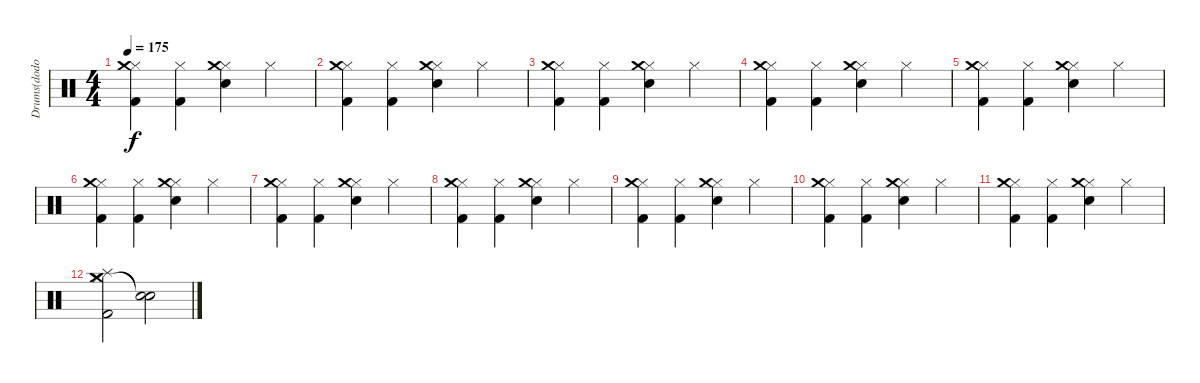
\track ("Drums(dodo)" "Drums(dodo") {instrument percussion}
\staff {score}
\articulation defaults
\ts (4 4)
\tempo 175
\clef neutral
\ks c
("Hi-Hat (closed)" "Crash medium (hit)" "Kick (hit) 2").4{dy f} ("Hi-Hat (closed)" "Kick (hit) 2").4 ("Hi-Hat (closed)" "Crash medium (hit)" "Snare (hit) 2").4 "Hi-Hat (closed)".4 |
("Hi-Hat (closed)" "Crash medium (hit)" "Kick (hit) 2").4 ("Hi-Hat (closed)" "Kick (hit) 2").4 ("Hi-Hat (closed)" "Crash medium (hit)" "Snare (hit) 2").4 "Hi-Hat (closed)".4 |
("Hi-Hat (closed)" "Crash medium (hit)" "Kick (hit) 2").4 ("Hi-Hat (closed)" "Kick (hit) 2").4 ("Hi-Hat (closed)" "Crash medium (hit)" "Snare (hit) 2").4 "Hi-Hat (closed)".4 |
("Hi-Hat (closed)" "Crash medium (hit)" "Kick (hit) 2").4 ("Hi-Hat (closed)" "Kick (hit) 2").4 ("Hi-Hat (closed)" "Crash medium (hit)" "Snare (hit) 2").4 "Hi-Hat (closed)".4 |
("Hi-Hat (closed)" "Crash medium (hit)" "Kick (hit) 2").4 ("Hi-Hat (closed)" "Kick (hit) 2").4 ("Hi-Hat (closed)" "Crash medium (hit)" "Snare (hit) 2").4 "Hi-Hat (closed)".4 |
("Hi-Hat (closed)" "Crash medium (hit)" "Kick (hit) 2").4 ("Hi-Hat (closed)" "Kick (hit) 2").4 ("Hi-Hat (closed)" "Crash medium (hit)" "Snare (hit) 2").4 "Hi-Hat (closed)".4 |
("Hi-Hat (closed)" "Crash medium (hit)" "Kick (hit) 2").4 ("Hi-Hat (closed)" "Kick (hit) 2").4 ("Hi-Hat (closed)" "Crash medium (hit)" "Snare (hit) 2").4 "Hi-Hat (closed)".4 |
("Hi-Hat (closed)" "Crash medium (hit)" "Kick (hit) 2").4 ("Hi-Hat (closed)" "Kick (hit) 2").4 ("Hi-Hat (closed)" "Crash medium (hit)" "Snare (hit) 2").4 "Hi-Hat (closed)".4 |
("Hi-Hat (closed)" "Crash medium (hit)" "Kick (hit) 2").4 ("Hi-Hat (closed)" "Kick (hit) 2").4 ("Hi-Hat (closed)" "Crash medium (hit)" "Snare (hit) 2").4 "Hi-Hat (closed)".4 |
("Hi-Hat (closed)" "Crash medium (hit)" "Kick (hit) 2").4 ("Hi-Hat (closed)" "Kick (hit) 2").4 ("Hi-Hat (closed)" "Crash medium (hit)" "Snare (hit) 2").4 "Hi-Hat (closed)".4 |
("Hi-Hat (closed)" "Crash medium (hit)" "Kick (hit) 2").4 ("Hi-Hat (closed)" "Kick (hit) 2").4 ("Hi-Hat (closed)" "Crash medium (hit)" "Snare (hit) 2").4 "Hi-Hat (closed)".4 |
("Hi-Hat (closed)" "Crash medium (hit)" "Kick (hit) 2" "Splash (hit)").2 ("Snare (hit)"{t} "Snare (hit)"{t}).2
